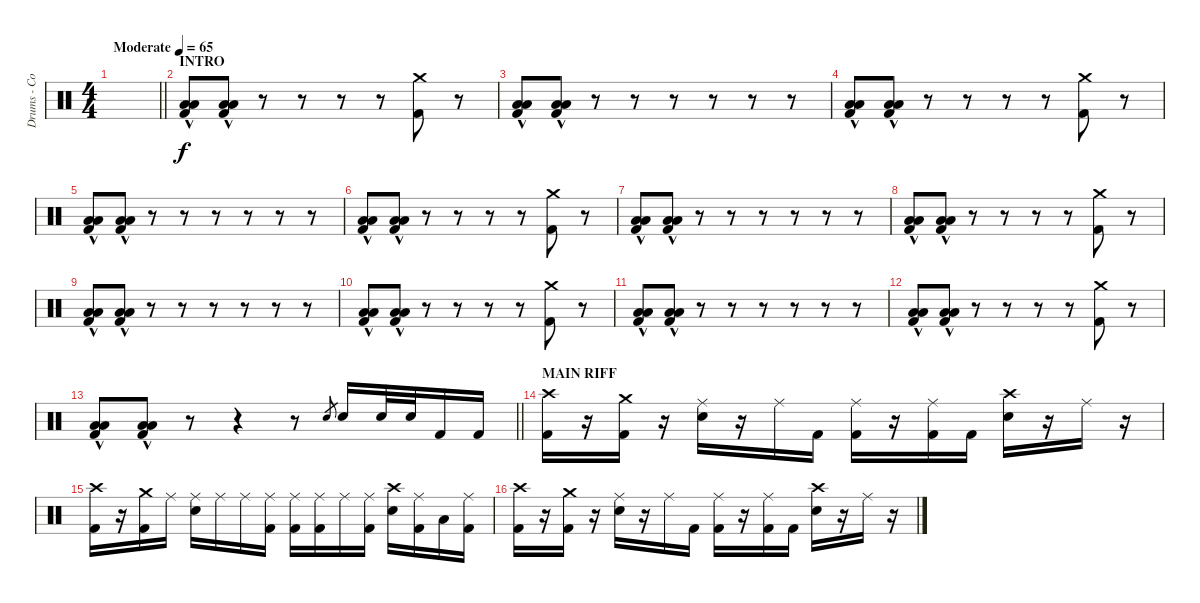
\track ("Drums - Cozy Powell" "Drums - Co") {instrument percussion}
\staff {score}
\articulation defaults
\ts (4 4)
\tempo (65 "Moderate")
\clef neutral
\barLineRight lightlight
\ks c
|
\section ("" "INTRO")
("Low Tom (hit)"{hac} "Low Floor Tom (hit)"{hac} "Kick (hit) 2").8 ("Low Tom (hit)"{hac} "Low Floor Tom (hit)"{hac} "Kick (hit) 2").8 r.8 r.8 r.8 r.8 ("Crash medium (hit)" "Kick (hit) 2").8 r.8 |
("Low Tom (hit)"{hac} "Low Floor Tom (hit)"{hac} "Kick (hit) 2").8 ("Low Tom (hit)"{hac} "Low Floor Tom (hit)"{hac} "Kick (hit) 2").8 r.8 r.8 r.8 r.8 r.8 r.8 |
("Low Tom (hit)"{hac} "Low Floor Tom (hit)"{hac} "Kick (hit) 2").8 ("Low Tom (hit)"{hac} "Low Floor Tom (hit)"{hac} "Kick (hit) 2").8 r.8 r.8 r.8 r.8 ("Crash medium (hit)" "Kick (hit) 2").8 r.8 |
("Low Tom (hit)"{hac} "Low Floor Tom (hit)"{hac} "Kick (hit) 2").8 ("Low Tom (hit)"{hac} "Low Floor Tom (hit)"{hac} "Kick (hit) 2").8 r.8 r.8 r.8 r.8 r.8 r.8 |
("Low Tom (hit)"{hac} "Low Floor Tom (hit)"{hac} "Kick (hit) 2").8 ("Low Tom (hit)"{hac} "Low Floor Tom (hit)"{hac} "Kick (hit) 2").8 r.8 r.8 r.8 r.8 ("Crash medium (hit)" "Kick (hit) 2").8 r.8 |
("Low Tom (hit)"{hac} "Low Floor Tom (hit)"{hac} "Kick (hit) 2").8 ("Low Tom (hit)"{hac} "Low Floor Tom (hit)"{hac} "Kick (hit) 2").8 r.8 r.8 r.8 r.8 r.8 r.8 |
("Low Tom (hit)"{hac} "Low Floor Tom (hit)"{hac} "Kick (hit) 2").8 ("Low Tom (hit)"{hac} "Low Floor Tom (hit)"{hac} "Kick (hit) 2").8 r.8 r.8 r.8 r.8 ("Crash medium (hit)" "Kick (hit) 2").8 r.8 |
("Low Tom (hit)"{hac} "Low Floor Tom (hit)"{hac} "Kick (hit) 2").8 ("Low Tom (hit)"{hac} "Low Floor Tom (hit)"{hac} "Kick (hit) 2").8 r.8 r.8 r.8 r.8 r.8 r.8 |
("Low Tom (hit)"{hac} "Low Floor Tom (hit)"{hac} "Kick (hit) 2").8 ("Low Tom (hit)"{hac} "Low Floor Tom (hit)"{hac} "Kick (hit) 2").8 r.8 r.8 r.8 r.8 ("Crash medium (hit)" "Kick (hit) 2").8 r.8 |
("Low Tom (hit)"{hac} "Low Floor Tom (hit)"{hac} "Kick (hit) 2").8 ("Low Tom (hit)"{hac} "Low Floor Tom (hit)"{hac} "Kick (hit) 2").8 r.8 r.8 r.8 r.8 r.8 r.8 |
("Low Tom (hit)"{hac} "Low Floor Tom (hit)"{hac} "Kick (hit) 2").8 ("Low Tom (hit)"{hac} "Low Floor Tom (hit)"{hac} "Kick (hit) 2").8 r.8 r.8 r.8 r.8 ("Crash medium (hit)" "Kick (hit) 2").8 r.8 |
\barLineRight lightlight
("Low Tom (hit)"{hac} "Low Floor Tom (hit)"{hac} "Kick (hit) 2").8 ("Low Tom (hit)"{hac} "Low Floor Tom (hit)"{hac} "Kick (hit) 2").8 r.8 r.4 r.8 "Snare (hit) 2".8{gr} "Snare (hit) 2".16 "Snare (hit) 2".32 "Snare (hit) 2".32 "Kick (hit) 2".16 "Kick (hit) 2".16 |
\section ("" "MAIN RIFF")
("Crash high (hit)" "Kick (hit) 2").16 r.16 ("Crash medium (hit)" "Kick (hit) 2").16 r.16 ("Ride (middle)" "Snare (hit) 2").16 r.16 "Ride (middle)".16 "Kick (hit) 2".16 ("Ride (middle)" "Kick (hit) 2").16 r.16 ("Ride (middle)" "Kick (hit) 2").16 "Kick (hit) 2".16 ("Crash high (hit)" "Snare (hit) 2").16 r.16 "Ride (middle)".16 r.16 |
("Crash high (hit)" "Kick (hit) 2").16 r.16 ("Crash medium (hit)" "Kick (hit) 2").16 "Ride (middle)".16 ("Ride (middle)" "Snare (hit) 2").16 "Ride (middle)".16 "Ride (middle)".16 ("Ride (middle)" "Kick (hit) 2").16 ("Ride (middle)" "Kick (hit) 2").16 ("Ride (middle)" "Kick (hit) 2").16 "Ride (middle)".16 ("Ride (middle)" "Kick (hit) 2").16 ("Crash high (hit)" "Snare (hit) 2").16 ("Ride (middle)" "Kick (hit) 2").16 "Low Floor Tom (hit)".16 ("Ride (middle)" "Kick (hit) 2").16 |
("Crash high (hit)" "Kick (hit) 2").16 r.16 ("Crash medium (hit)" "Kick (hit) 2").16 r.16 ("Ride (middle)" "Snare (hit) 2").16 r.16 "Ride (middle)".16 "Kick (hit) 2".16 ("Ride (middle)" "Kick (hit) 2").16 r.16 ("Ride (middle)" "Kick (hit) 2").16 "Kick (hit) 2".16 ("Crash high (hit)" "Snare (hit) 2").16 r.16 "Ride (middle)".16 r.16
